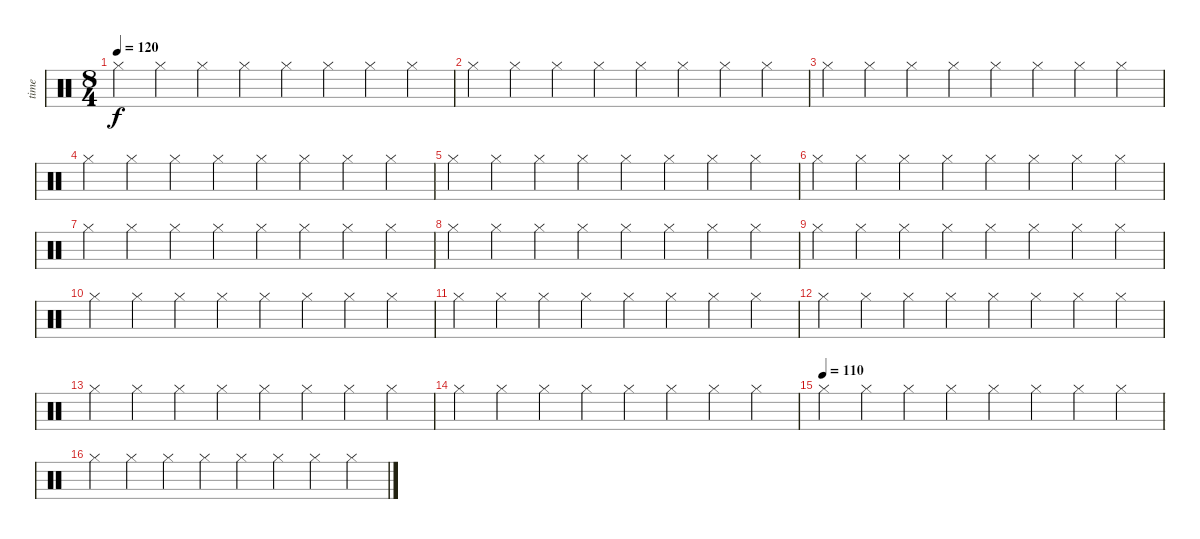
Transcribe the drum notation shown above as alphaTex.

\track ("time" "time") {instrument percussion}
\staff {score}
\articulation defaults
\ts (8 4)
\tempo 120
\clef neutral
\ks c "Hi-Hat (closed)".4{dy f} "Hi-Hat (closed)".4 "Hi-Hat (closed)".4 "Hi-Hat (closed)".4 "Hi-Hat (closed)".4 "Hi-Hat (closed)".4 "Hi-Hat (closed)".4 "Hi-Hat (closed)".4
|
"Hi-Hat (closed)".4 "Hi-Hat (closed)".4 "Hi-Hat (closed)".4 "Hi-Hat (closed)".4 "Hi-Hat (closed)".4 "Hi-Hat (closed)".4 "Hi-Hat (closed)".4 "Hi-Hat (closed)".4 |
"Hi-Hat (closed)".4 "Hi-Hat (closed)".4 "Hi-Hat (closed)".4 "Hi-Hat (closed)".4 "Hi-Hat (closed)".4 "Hi-Hat (closed)".4 "Hi-Hat (closed)".4 "Hi-Hat (closed)".4 |
"Hi-Hat (closed)".4 "Hi-Hat (closed)".4 "Hi-Hat (closed)".4 "Hi-Hat (closed)".4 "Hi-Hat (closed)".4 "Hi-Hat (closed)".4 "Hi-Hat (closed)".4 "Hi-Hat (closed)".4 |
"Hi-Hat (closed)".4 "Hi-Hat (closed)".4 "Hi-Hat (closed)".4 "Hi-Hat (closed)".4 "Hi-Hat (closed)".4 "Hi-Hat (closed)".4 "Hi-Hat (closed)".4 "Hi-Hat (closed)".4 |
"Hi-Hat (closed)".4 "Hi-Hat (closed)".4 "Hi-Hat (closed)".4 "Hi-Hat (closed)".4 "Hi-Hat (closed)".4 "Hi-Hat (closed)".4 "Hi-Hat (closed)".4 "Hi-Hat (closed)".4 |
"Hi-Hat (closed)".4 "Hi-Hat (closed)".4 "Hi-Hat (closed)".4 "Hi-Hat (closed)".4 "Hi-Hat (closed)".4 "Hi-Hat (closed)".4 "Hi-Hat (closed)".4 "Hi-Hat (closed)".4 |
"Hi-Hat (closed)".4 "Hi-Hat (closed)".4 "Hi-Hat (closed)".4 "Hi-Hat (closed)".4 "Hi-Hat (closed)".4 "Hi-Hat (closed)".4 "Hi-Hat (closed)".4 "Hi-Hat (closed)".4 |
"Hi-Hat (closed)".4 "Hi-Hat (closed)".4 "Hi-Hat (closed)".4 "Hi-Hat (closed)".4 "Hi-Hat (closed)".4 "Hi-Hat (closed)".4 "Hi-Hat (closed)".4 "Hi-Hat (closed)".4 |
"Hi-Hat (closed)".4 "Hi-Hat (closed)".4 "Hi-Hat (closed)".4 "Hi-Hat (closed)".4 "Hi-Hat (closed)".4 "Hi-Hat (closed)".4 "Hi-Hat (closed)".4 "Hi-Hat (closed)".4 |
"Hi-Hat (closed)".4 "Hi-Hat (closed)".4 "Hi-Hat (closed)".4 "Hi-Hat (closed)".4 "Hi-Hat (closed)".4 "Hi-Hat (closed)".4 "Hi-Hat (closed)".4 "Hi-Hat (closed)".4 |
"Hi-Hat (closed)".4 "Hi-Hat (closed)".4 "Hi-Hat (closed)".4 "Hi-Hat (closed)".4 "Hi-Hat (closed)".4 "Hi-Hat (closed)".4 "Hi-Hat (closed)".4 "Hi-Hat (closed)".4 |
"Hi-Hat (closed)".4 "Hi-Hat (closed)".4 "Hi-Hat (closed)".4 "Hi-Hat (closed)".4 "Hi-Hat (closed)".4 "Hi-Hat (closed)".4 "Hi-Hat (closed)".4 "Hi-Hat (closed)".4 |
"Hi-Hat (closed)".4 "Hi-Hat (closed)".4 "Hi-Hat (closed)".4 "Hi-Hat (closed)".4 "Hi-Hat (closed)".4 "Hi-Hat (closed)".4 "Hi-Hat (closed)".4 "Hi-Hat (closed)".4 |
\tempo (110)
"Hi-Hat (closed)".4 "Hi-Hat (closed)".4 "Hi-Hat (closed)".4 "Hi-Hat (closed)".4 "Hi-Hat (closed)".4 "Hi-Hat (closed)".4 "Hi-Hat (closed)".4 "Hi-Hat (closed)".4 |
"Hi-Hat (closed)".4 "Hi-Hat (closed)".4 "Hi-Hat (closed)".4 "Hi-Hat (closed)".4 "Hi-Hat (closed)".4 "Hi-Hat (closed)".4 "Hi-Hat (closed)".4 "Hi-Hat (closed)".4
